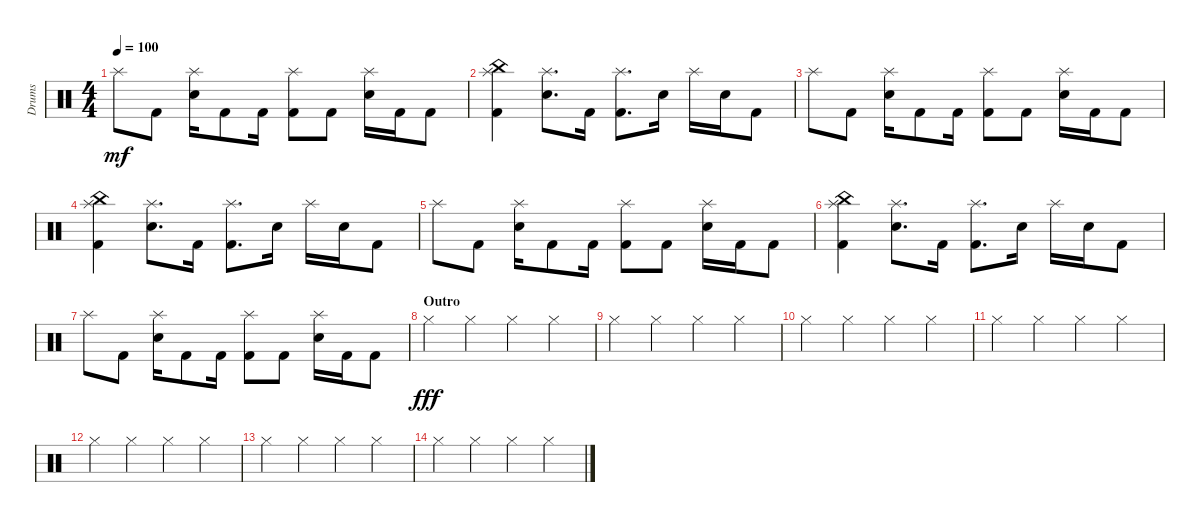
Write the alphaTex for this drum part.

\defaultSystemsLayout 4
\bracketExtendMode groupsimilarinstruments
\otherSystemsTrackNameOrientation horizontal
\track ("Prakarsh" "Drums") {instrument percussion}
\staff {score}
\articulation defaults
\ts (4 4)
\tempo 100
\clef neutral
\ks c "Splash (hit)".8{dy mf beam Down} "Kick (hit) 2".8{beam Down}
("Snare (hit) 2" "Splash (hit)").16{beam Down} "Kick (hit) 2".8{beam Down} "Kick (hit) 2".16{beam Down} ("Kick (hit) 2" "Splash (hit)").8{beam Down} "Kick (hit) 2".8{beam Down} ("Snare (hit) 2" "Splash (hit)").16{beam Down} "Kick (hit) 2".16{beam Down} "Kick (hit) 2".8{beam Down} |
("Kick (hit) 2" "China (hit)" "Splash (hit)").4{beam Down} ("Snare (hit) 2" "Splash (hit)").8{d beam Down} "Kick (hit) 2".16{beam Down} ("Kick (hit) 2" "Splash (hit)").8{d beam Down} "Snare (hit) 2".16{beam Down} "Splash (hit)".16{beam Down} "Snare (hit) 2".16{beam Down} "Kick (hit) 2".8{beam Down} |
"Splash (hit)".8{beam Down} "Kick (hit) 2".8{beam Down} ("Snare (hit) 2" "Splash (hit)").16{beam Down} "Kick (hit) 2".8{beam Down} "Kick (hit) 2".16{beam Down} ("Kick (hit) 2" "Splash (hit)").8{beam Down} "Kick (hit) 2".8{beam Down} ("Snare (hit) 2" "Splash (hit)").16{beam Down} "Kick (hit) 2".16{beam Down} "Kick (hit) 2".8{beam Down} |
("Kick (hit) 2" "China (hit)" "Splash (hit)").4{beam Down} ("Snare (hit) 2" "Splash (hit)").8{d beam Down} "Kick (hit) 2".16{beam Down} ("Kick (hit) 2" "Splash (hit)").8{d beam Down} "Snare (hit) 2".16{beam Down} "Splash (hit)".16{beam Down} "Snare (hit) 2".16{beam Down} "Kick (hit) 2".8{beam Down} |
"Splash (hit)".8{beam Down} "Kick (hit) 2".8{beam Down} ("Snare (hit) 2" "Splash (hit)").16{beam Down} "Kick (hit) 2".8{beam Down} "Kick (hit) 2".16{beam Down} ("Kick (hit) 2" "Splash (hit)").8{beam Down} "Kick (hit) 2".8{beam Down} ("Snare (hit) 2" "Splash (hit)").16{beam Down} "Kick (hit) 2".16{beam Down} "Kick (hit) 2".8{beam Down} |
("Kick (hit) 2" "China (hit)" "Splash (hit)").4{beam Down} ("Snare (hit) 2" "Splash (hit)").8{d beam Down} "Kick (hit) 2".16{beam Down} ("Kick (hit) 2" "Splash (hit)").8{d beam Down} "Snare (hit) 2".16{beam Down} "Splash (hit)".16{beam Down} "Snare (hit) 2".16{beam Down} "Kick (hit) 2".8{beam Down} |
"Splash (hit)".8{beam Down} "Kick (hit) 2".8{beam Down} ("Snare (hit) 2" "Splash (hit)").16{beam Down} "Kick (hit) 2".8{beam Down} "Kick (hit) 2".16{beam Down} ("Kick (hit) 2" "Splash (hit)").8{beam Down} "Kick (hit) 2".8{beam Down} ("Snare (hit) 2" "Splash (hit)").16{beam Down} "Kick (hit) 2".16{beam Down} "Kick (hit) 2".8{beam Down} |
\section ("" "Outro")
"Hi-Hat (closed)".4{dy fff beam Down} "Hi-Hat (closed)".4{beam Down} "Hi-Hat (closed)".4{beam Down} "Hi-Hat (closed)".4{beam Down} |
"Hi-Hat (closed)".4{beam Down} "Hi-Hat (closed)".4{beam Down} "Hi-Hat (closed)".4{beam Down} "Hi-Hat (closed)".4{beam Down} |
"Hi-Hat (closed)".4{beam Down} "Hi-Hat (closed)".4{beam Down} "Hi-Hat (closed)".4{beam Down} "Hi-Hat (closed)".4{beam Down} |
"Hi-Hat (closed)".4{beam Down} "Hi-Hat (closed)".4{beam Down} "Hi-Hat (closed)".4{beam Down} "Hi-Hat (closed)".4{beam Down} |
"Hi-Hat (closed)".4{beam Down} "Hi-Hat (closed)".4{beam Down} "Hi-Hat (closed)".4{beam Down} "Hi-Hat (closed)".4{beam Down} |
"Hi-Hat (closed)".4{beam Down} "Hi-Hat (closed)".4{beam Down} "Hi-Hat (closed)".4{beam Down} "Hi-Hat (closed)".4{beam Down} |
"Hi-Hat (closed)".4{beam Down} "Hi-Hat (closed)".4{beam Down} "Hi-Hat (closed)".4{beam Down} "Hi-Hat (closed)".4{beam Down}
